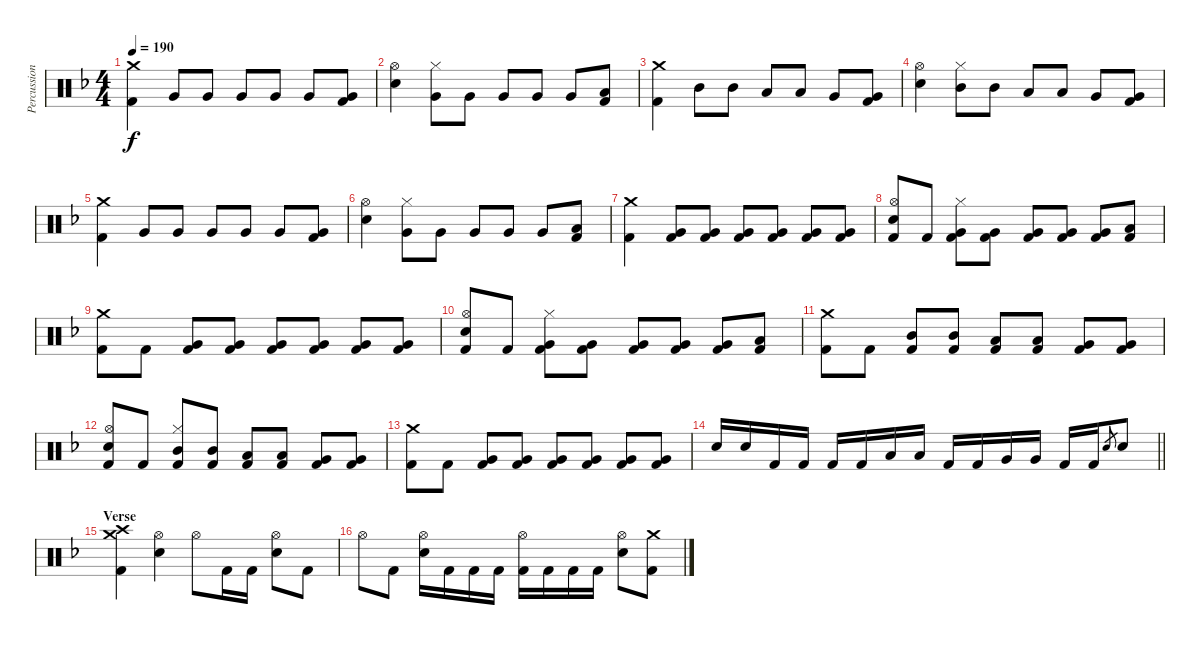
\track ("Percussion" "Percussion") {instrument percussion}
\staff {score}
\articulation defaults
\ts (4 4)
\tempo 190
\clef neutral
\ks f
("Crash medium (hit)" "Kick (hit) 2").4{dy f} "Very Low Tom (hit)".8 "Very Low Tom (hit)".8 "Very Low Tom (hit)".8 "Very Low Tom (hit)".8 "Very Low Tom (hit)".8 ("Very Low Tom (hit)" "Kick (hit) 2").8 |
("Hi-Hat (open)" "Electric Snare (hit)").4 ("Hi-Hat (closed)" "Very Low Tom (hit)").8 "Very Low Tom (hit)".8 "Very Low Tom (hit)".8 "Very Low Tom (hit)".8 "Very Low Tom (hit)".8 ("Low Floor Tom (hit)" "Kick (hit) 2").8 |
("Crash medium (hit)" "Kick (hit) 2").4 "Mid Tom (hit)".8 "Mid Tom (hit)".8 "Low Tom (hit)".8 "Low Tom (hit)".8 "Very Low Tom (hit)".8 ("Very Low Tom (hit)" "Kick (hit) 2").8 |
("Hi-Hat (open)" "Electric Snare (hit)").4 ("Hi-Hat (closed)" "Mid Tom (hit)").8 "Mid Tom (hit)".8 "Low Tom (hit)".8 "Low Tom (hit)".8 "Very Low Tom (hit)".8 ("Very Low Tom (hit)" "Kick (hit) 2").8 |
("Crash medium (hit)" "Kick (hit) 2").4 "Very Low Tom (hit)".8 "Very Low Tom (hit)".8 "Very Low Tom (hit)".8 "Very Low Tom (hit)".8 "Very Low Tom (hit)".8 ("Very Low Tom (hit)" "Kick (hit) 2").8 |
("Hi-Hat (open)" "Electric Snare (hit)").4 ("Hi-Hat (closed)" "Very Low Tom (hit)").8 "Very Low Tom (hit)".8 "Very Low Tom (hit)".8 "Very Low Tom (hit)".8 "Very Low Tom (hit)".8 ("Low Floor Tom (hit)" "Kick (hit) 2").8 |
("Crash medium (hit)" "Kick (hit) 2").4 ("Very Low Tom (hit)" "Kick (hit) 2").8 ("Very Low Tom (hit)" "Kick (hit) 2").8 ("Very Low Tom (hit)" "Kick (hit) 2").8 ("Very Low Tom (hit)" "Kick (hit) 2").8 ("Very Low Tom (hit)" "Kick (hit) 2").8 ("Very Low Tom (hit)" "Kick (hit) 2").8 |
("Hi-Hat (open)" "Electric Snare (hit)" "Kick (hit) 2").8 "Kick (hit) 2".8 ("Hi-Hat (closed)" "Very Low Tom (hit)" "Kick (hit) 2").8 ("Very Low Tom (hit)" "Kick (hit) 2").8 ("Very Low Tom (hit)" "Kick (hit) 2").8 ("Very Low Tom (hit)" "Kick (hit) 2").8 ("Very Low Tom (hit)" "Kick (hit) 2").8 ("Low Floor Tom (hit)" "Kick (hit) 2").8 |
("Crash medium (hit)" "Kick (hit) 2").8 "Kick (hit) 2".8 ("Very Low Tom (hit)" "Kick (hit) 2").8 ("Very Low Tom (hit)" "Kick (hit) 2").8 ("Very Low Tom (hit)" "Kick (hit) 2").8 ("Very Low Tom (hit)" "Kick (hit) 2").8 ("Very Low Tom (hit)" "Kick (hit) 2").8 ("Very Low Tom (hit)" "Kick (hit) 2").8 |
("Hi-Hat (open)" "Electric Snare (hit)" "Kick (hit) 2").8 "Kick (hit) 2".8 ("Hi-Hat (closed)" "Very Low Tom (hit)" "Kick (hit) 2").8 ("Very Low Tom (hit)" "Kick (hit) 2").8 ("Very Low Tom (hit)" "Kick (hit) 2").8 ("Very Low Tom (hit)" "Kick (hit) 2").8 ("Very Low Tom (hit)" "Kick (hit) 2").8 ("Low Floor Tom (hit)" "Kick (hit) 2").8 |
("Crash medium (hit)" "Kick (hit) 2").8 "Kick (hit) 2".8 ("Mid Tom (hit)" "Kick (hit) 2").8 ("Mid Tom (hit)" "Kick (hit) 2").8 ("Low Tom (hit)" "Kick (hit) 2").8 ("Low Tom (hit)" "Kick (hit) 2").8 ("Very Low Tom (hit)" "Kick (hit) 2").8 ("Very Low Tom (hit)" "Kick (hit) 2").8 |
("Hi-Hat (open)" "Electric Snare (hit)" "Kick (hit) 2").8 "Kick (hit) 2".8 ("Hi-Hat (closed)" "Mid Tom (hit)" "Kick (hit) 2").8 ("Mid Tom (hit)" "Kick (hit) 2").8 ("Low Tom (hit)" "Kick (hit) 2").8 ("Low Tom (hit)" "Kick (hit) 2").8 ("Very Low Tom (hit)" "Kick (hit) 2").8 ("Very Low Tom (hit)" "Kick (hit) 2").8 |
("Crash medium (hit)" "Kick (hit) 2").8 "Kick (hit) 2".8 ("Very Low Tom (hit)" "Kick (hit) 2").8 ("Very Low Tom (hit)" "Kick (hit) 2").8 ("Very Low Tom (hit)" "Kick (hit) 2").8 ("Very Low Tom (hit)" "Kick (hit) 2").8 ("Very Low Tom (hit)" "Kick (hit) 2").8 ("Very Low Tom (hit)" "Kick (hit) 2").8 |
\barLineRight lightlight "Electric Snare (hit)".16 "Electric Snare (hit)".16 "Kick (hit) 2".16 "Kick (hit) 2".16 "Kick (hit) 2".16 "Kick (hit) 2".16 "Low Tom (hit)".16 "Low Tom (hit)".16 "Kick (hit) 2".16 "Kick (hit) 2".16 "Very Low Tom (hit)".16 "Very Low Tom (hit)".16 "Kick (hit) 2".16 "Kick (hit) 2".16 "Electric Snare (hit)".8{gr} "Electric Snare (hit)".8
|
\section ("" "Verse")
("Crash medium (hit)" "Crash high (hit)" "Kick (hit) 2").4 ("Hi-Hat (open)" "Electric Snare (hit)").4 "Hi-Hat (open)".8 "Kick (hit) 2".16 "Kick (hit) 2".16 ("Hi-Hat (open)" "Electric Snare (hit)").8 "Kick (hit) 2".8 |
"Hi-Hat (open)".8 "Kick (hit) 2".8 ("Hi-Hat (open)" "Electric Snare (hit)").16 "Kick (hit) 2".16 "Kick (hit) 2".16 "Kick (hit) 2".16 ("Hi-Hat (open)" "Kick (hit) 2").16 "Kick (hit) 2".16 "Kick (hit) 2".16 "Kick (hit) 2".16 ("Hi-Hat (open)" "Electric Snare (hit)").8 ("Crash medium (hit)" "Kick (hit) 2").8
